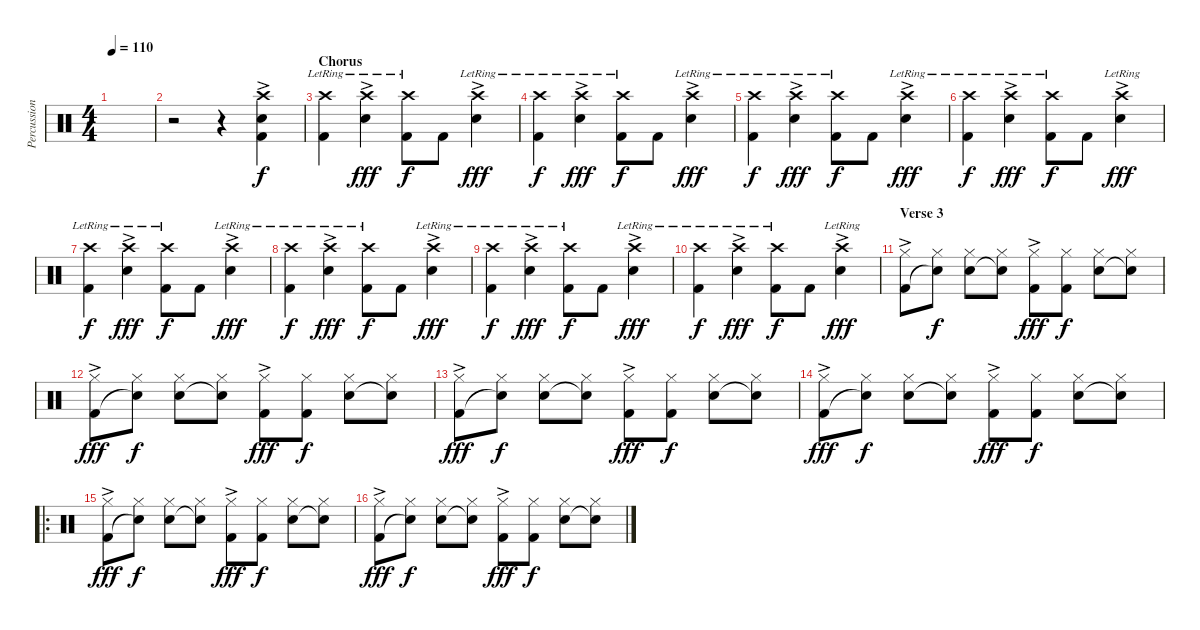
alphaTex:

\track ("Percussion" "Percussion") {instrument percussion}
\staff {score}
\articulation defaults
\ts (4 4)
\tempo 110
\clef neutral
\ks c
|
r.2 r.4 ("Crash high (hit)" "Snare (hit) 2"{ac} "Kick (hit) 2").4 |
\section ("" "Chorus")
("Crash high (hit)"{lr} "Kick (hit) 2").4{dy f} ("Crash high (hit)"{ac lr} "Snare (hit) 2").4{dy fff} ("Crash high (hit)"{lr} "Kick (hit) 2").8{dy f} "Kick (hit) 2".8 ("Crash high (hit)"{lr} "Snare (hit) 2"{ac}).4{dy fff} |
("Crash high (hit)"{lr} "Kick (hit) 2").4{dy f} ("Crash high (hit)"{lr} "Snare (hit) 2"{ac}).4{dy fff} ("Crash high (hit)"{lr} "Kick (hit) 2").8{dy f} "Kick (hit) 2".8 ("Crash high (hit)"{lr} "Snare (hit) 2"{ac}).4{dy fff} |
("Crash high (hit)"{lr} "Kick (hit) 2").4{dy f} ("Crash high (hit)"{lr} "Snare (hit) 2"{ac}).4{dy fff} ("Crash high (hit)"{lr} "Kick (hit) 2").8{dy f} "Kick (hit) 2".8 ("Crash high (hit)"{lr} "Snare (hit) 2"{ac}).4{dy fff} |
("Crash high (hit)"{lr} "Kick (hit) 2").4{dy f} ("Crash high (hit)"{lr} "Snare (hit) 2"{ac}).4{dy fff} ("Crash high (hit)"{lr} "Kick (hit) 2").8{dy f} "Kick (hit) 2".8 ("Crash high (hit)"{lr} "Snare (hit) 2"{ac}).4{dy fff} |
("Crash high (hit)"{lr} "Kick (hit) 2").4{dy f} ("Crash high (hit)"{lr} "Snare (hit) 2"{ac}).4{dy fff} ("Crash high (hit)"{lr} "Kick (hit) 2").8{dy f} "Kick (hit) 2".8 ("Crash high (hit)"{lr} "Snare (hit) 2"{ac}).4{dy fff} |
("Crash high (hit)"{lr} "Kick (hit) 2").4{dy f} ("Crash high (hit)"{lr} "Snare (hit) 2"{ac}).4{dy fff} ("Crash high (hit)"{lr} "Kick (hit) 2").8{dy f} "Kick (hit) 2".8 ("Crash high (hit)"{lr} "Snare (hit) 2"{ac}).4{dy fff} |
("Crash high (hit)"{lr} "Kick (hit) 2").4{dy f} ("Crash high (hit)"{lr} "Snare (hit) 2"{ac}).4{dy fff} ("Crash high (hit)"{lr} "Kick (hit) 2").8{dy f} "Kick (hit) 2".8 ("Crash high (hit)"{lr} "Snare (hit) 2"{ac}).4{dy fff} |
("Crash high (hit)"{lr} "Kick (hit) 2").4{dy f} ("Crash high (hit)"{lr} "Snare (hit) 2"{ac}).4{dy fff} ("Crash high (hit)"{lr} "Kick (hit) 2").8{dy f} "Kick (hit) 2".8 ("Crash high (hit)"{lr} "Snare (hit) 2"{ac}).4{dy fff} |
\section ("" "Verse 3")
("Hi-Hat (closed)" "Kick (hit) 2"{ac}).8 ("Hi-Hat (closed)" "Snare (hit)"{t}).8{dy f} ("Hi-Hat (closed)" "Snare (hit) 2").8 ("Hi-Hat (closed)" "Snare (hit)"{t}).8 ("Hi-Hat (closed)" "Kick (hit) 2"{ac}).8{dy fff} ("Hi-Hat (closed)" "Kick (hit) 2").8{dy f} ("Hi-Hat (closed)" "Snare (hit) 2").8 ("Hi-Hat (closed)" "Snare (hit)"{t}).8 |
("Hi-Hat (closed)" "Kick (hit) 2"{ac}).8{dy fff} ("Hi-Hat (closed)" "Snare (hit)"{t}).8{dy f} ("Hi-Hat (closed)" "Snare (hit) 2").8 ("Hi-Hat (closed)" "Snare (hit)"{t}).8 ("Hi-Hat (closed)" "Kick (hit) 2"{ac}).8{dy fff} ("Hi-Hat (closed)" "Kick (hit) 2").8{dy f} ("Hi-Hat (closed)" "Snare (hit) 2").8 ("Hi-Hat (closed)" "Snare (hit)"{t}).8 |
("Hi-Hat (closed)" "Kick (hit) 2"{ac}).8{dy fff} ("Hi-Hat (closed)" "Snare (hit)"{t}).8{dy f} ("Hi-Hat (closed)" "Snare (hit) 2").8 ("Hi-Hat (closed)" "Snare (hit)"{t}).8 ("Hi-Hat (closed)" "Kick (hit) 2"{ac}).8{dy fff} ("Hi-Hat (closed)" "Kick (hit) 2").8{dy f} ("Hi-Hat (closed)" "Snare (hit) 2").8 ("Hi-Hat (closed)" "Snare (hit)"{t}).8 |
("Hi-Hat (closed)" "Kick (hit) 2"{ac}).8{dy fff} ("Hi-Hat (closed)" "Snare (hit)"{t}).8{dy f} ("Hi-Hat (closed)" "Snare (hit) 2").8 ("Hi-Hat (closed)" "Snare (hit)"{t}).8 ("Hi-Hat (closed)" "Kick (hit) 2"{ac}).8{dy fff} ("Hi-Hat (closed)" "Kick (hit) 2").8{dy f} ("Hi-Hat (closed)" "Snare (hit) 2").8 ("Hi-Hat (closed)" "Snare (hit)"{t}).8 |
\ro
("Hi-Hat (closed)" "Kick (hit) 2"{ac}).8{dy fff} ("Hi-Hat (closed)" "Snare (hit)"{t}).8{dy f} ("Hi-Hat (closed)" "Snare (hit) 2").8 ("Hi-Hat (closed)" "Snare (hit)"{t}).8 ("Hi-Hat (closed)" "Kick (hit) 2"{ac}).8{dy fff} ("Hi-Hat (closed)" "Kick (hit) 2").8{dy f} ("Hi-Hat (closed)" "Snare (hit) 2").8 ("Hi-Hat (closed)" "Snare (hit)"{t}).8 |
("Hi-Hat (closed)" "Kick (hit) 2"{ac}).8{dy fff} ("Hi-Hat (closed)" "Snare (hit)"{t}).8{dy f} ("Hi-Hat (closed)" "Snare (hit) 2").8 ("Hi-Hat (closed)" "Snare (hit)"{t}).8 ("Hi-Hat (closed)" "Kick (hit) 2"{ac}).8{dy fff} ("Hi-Hat (closed)" "Kick (hit) 2").8{dy f} ("Hi-Hat (closed)" "Snare (hit) 2").8 ("Hi-Hat (closed)" "Snare (hit)"{t}).8
